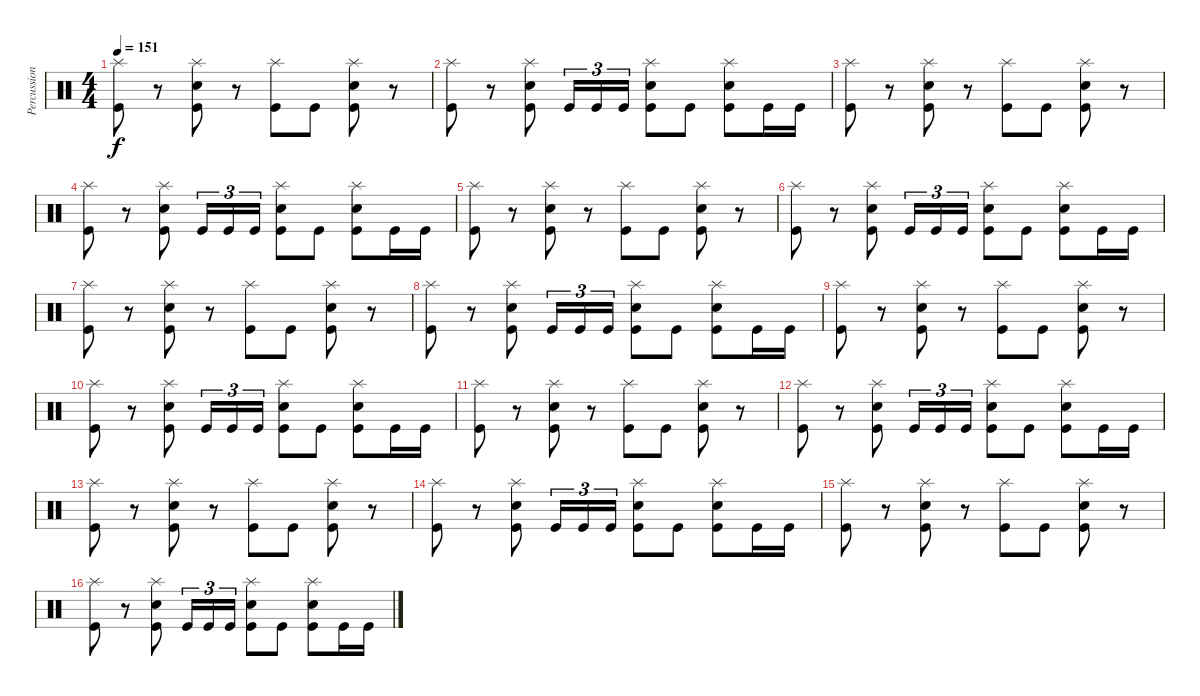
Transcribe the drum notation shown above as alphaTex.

\track ("Percussion" "Percussion") {instrument percussion}
\staff {score}
\articulation defaults
\ts (4 4)
\tempo 151
\clef neutral
\ks c
("Splash (hit)" "Kick (hit)").8{dy f} r.8 ("Splash (hit)" "Snare (hit) 2" "Kick (hit)").8 r.8 ("Splash (hit)" "Kick (hit)").8 "Kick (hit)".8 ("Splash (hit)" "Snare (hit) 2" "Kick (hit)").8 r.8 |
("Splash (hit)" "Kick (hit)").8 r.8 ("Splash (hit)" "Snare (hit) 2" "Kick (hit)").8 "Kick (hit)".16{tu (3 2)} "Kick (hit)".16{tu (3 2)} "Kick (hit)".16{tu (3 2)} ("Splash (hit)" "Snare (hit) 2" "Kick (hit)").8 "Kick (hit)".8 ("Splash (hit)" "Snare (hit) 2" "Kick (hit)").8 "Kick (hit)".16 "Kick (hit)".16 |
("Splash (hit)" "Kick (hit)").8 r.8 ("Splash (hit)" "Snare (hit) 2" "Kick (hit)").8 r.8 ("Splash (hit)" "Kick (hit)").8 "Kick (hit)".8 ("Splash (hit)" "Snare (hit) 2" "Kick (hit)").8 r.8 |
("Splash (hit)" "Kick (hit)").8 r.8 ("Splash (hit)" "Snare (hit) 2" "Kick (hit)").8 "Kick (hit)".16{tu (3 2)} "Kick (hit)".16{tu (3 2)} "Kick (hit)".16{tu (3 2)} ("Splash (hit)" "Snare (hit) 2" "Kick (hit)").8 "Kick (hit)".8 ("Splash (hit)" "Snare (hit) 2" "Kick (hit)").8 "Kick (hit)".16 "Kick (hit)".16 |
("Splash (hit)" "Kick (hit)").8 r.8 ("Splash (hit)" "Snare (hit) 2" "Kick (hit)").8 r.8 ("Splash (hit)" "Kick (hit)").8 "Kick (hit)".8 ("Splash (hit)" "Snare (hit) 2" "Kick (hit)").8 r.8 |
("Splash (hit)" "Kick (hit)").8 r.8 ("Splash (hit)" "Snare (hit) 2" "Kick (hit)").8 "Kick (hit)".16{tu (3 2)} "Kick (hit)".16{tu (3 2)} "Kick (hit)".16{tu (3 2)} ("Splash (hit)" "Snare (hit) 2" "Kick (hit)").8 "Kick (hit)".8 ("Splash (hit)" "Snare (hit) 2" "Kick (hit)").8 "Kick (hit)".16 "Kick (hit)".16 |
("Splash (hit)" "Kick (hit)").8 r.8 ("Splash (hit)" "Snare (hit) 2" "Kick (hit)").8 r.8 ("Splash (hit)" "Kick (hit)").8 "Kick (hit)".8 ("Splash (hit)" "Snare (hit) 2" "Kick (hit)").8 r.8 |
("Splash (hit)" "Kick (hit)").8 r.8 ("Splash (hit)" "Snare (hit) 2" "Kick (hit)").8 "Kick (hit)".16{tu (3 2)} "Kick (hit)".16{tu (3 2)} "Kick (hit)".16{tu (3 2)} ("Splash (hit)" "Snare (hit) 2" "Kick (hit)").8 "Kick (hit)".8 ("Splash (hit)" "Snare (hit) 2" "Kick (hit)").8 "Kick (hit)".16 "Kick (hit)".16 |
("Splash (hit)" "Kick (hit)").8 r.8 ("Splash (hit)" "Snare (hit) 2" "Kick (hit)").8 r.8 ("Splash (hit)" "Kick (hit)").8 "Kick (hit)".8 ("Splash (hit)" "Snare (hit) 2" "Kick (hit)").8 r.8 |
("Splash (hit)" "Kick (hit)").8 r.8 ("Splash (hit)" "Snare (hit) 2" "Kick (hit)").8 "Kick (hit)".16{tu (3 2)} "Kick (hit)".16{tu (3 2)} "Kick (hit)".16{tu (3 2)} ("Splash (hit)" "Snare (hit) 2" "Kick (hit)").8 "Kick (hit)".8 ("Splash (hit)" "Snare (hit) 2" "Kick (hit)").8 "Kick (hit)".16 "Kick (hit)".16 |
("Splash (hit)" "Kick (hit)").8 r.8 ("Splash (hit)" "Snare (hit) 2" "Kick (hit)").8 r.8 ("Splash (hit)" "Kick (hit)").8 "Kick (hit)".8 ("Splash (hit)" "Snare (hit) 2" "Kick (hit)").8 r.8 |
("Splash (hit)" "Kick (hit)").8 r.8 ("Splash (hit)" "Snare (hit) 2" "Kick (hit)").8 "Kick (hit)".16{tu (3 2)} "Kick (hit)".16{tu (3 2)} "Kick (hit)".16{tu (3 2)} ("Splash (hit)" "Snare (hit) 2" "Kick (hit)").8 "Kick (hit)".8 ("Splash (hit)" "Snare (hit) 2" "Kick (hit)").8 "Kick (hit)".16 "Kick (hit)".16 |
("Splash (hit)" "Kick (hit)").8 r.8 ("Splash (hit)" "Snare (hit) 2" "Kick (hit)").8 r.8 ("Splash (hit)" "Kick (hit)").8 "Kick (hit)".8 ("Splash (hit)" "Snare (hit) 2" "Kick (hit)").8 r.8 |
("Splash (hit)" "Kick (hit)").8 r.8 ("Splash (hit)" "Snare (hit) 2" "Kick (hit)").8 "Kick (hit)".16{tu (3 2)} "Kick (hit)".16{tu (3 2)} "Kick (hit)".16{tu (3 2)} ("Splash (hit)" "Snare (hit) 2" "Kick (hit)").8 "Kick (hit)".8 ("Splash (hit)" "Snare (hit) 2" "Kick (hit)").8 "Kick (hit)".16 "Kick (hit)".16 |
("Splash (hit)" "Kick (hit)").8 r.8 ("Splash (hit)" "Snare (hit) 2" "Kick (hit)").8 r.8 ("Splash (hit)" "Kick (hit)").8 "Kick (hit)".8 ("Splash (hit)" "Snare (hit) 2" "Kick (hit)").8 r.8 |
("Splash (hit)" "Kick (hit)").8 r.8 ("Splash (hit)" "Snare (hit) 2" "Kick (hit)").8 "Kick (hit)".16{tu (3 2)} "Kick (hit)".16{tu (3 2)} "Kick (hit)".16{tu (3 2)} ("Splash (hit)" "Snare (hit) 2" "Kick (hit)").8 "Kick (hit)".8 ("Splash (hit)" "Snare (hit) 2" "Kick (hit)").8 "Kick (hit)".16 "Kick (hit)".16
